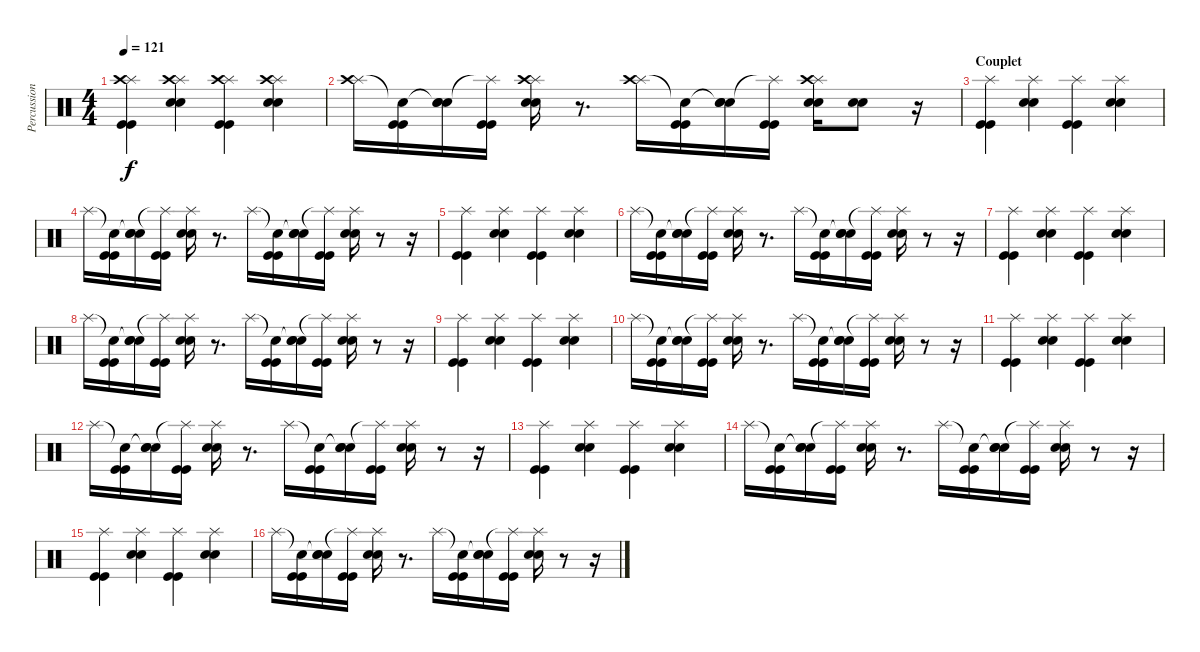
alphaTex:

\track ("Percussions" "Percussion") {instrument percussion}
\staff {score}
\articulation defaults
\ts (4 4)
\tempo 121
\clef neutral
\ks c
("Splash (hit)" "Crash high (hit)" "Kick (hit)" "Kick (hit)").4{dy f} ("Splash (hit)" "Crash high (hit)" "Electric Snare (hit)" "Electric Snare (hit)").4 ("Splash (hit)" "Crash high (hit)" "Kick (hit)" "Kick (hit)").4 ("Splash (hit)" "Crash high (hit)" "Electric Snare (hit)" "Electric Snare (hit)").4 |
("Splash (hit)" "Crash high (hit)").16 ("Snare (hit)"{t} "Kick (hit)" "Kick (hit)").16 ("Snare (hit)"{t} "Electric Snare (hit)" "Electric Snare (hit)").16 ("Splash (hit)"{t} "Kick (hit)" "Kick (hit)").16 ("Splash (hit)" "Crash high (hit)" "Electric Snare (hit)" "Electric Snare (hit)").16 r.8{d} ("Splash (hit)" "Crash high (hit)").16 ("Snare (hit)"{t} "Kick (hit)" "Kick (hit)").16 ("Snare (hit)"{t} "Electric Snare (hit)" "Electric Snare (hit)").16 ("Splash (hit)"{t} "Kick (hit)" "Kick (hit)").16 ("Splash (hit)" "Crash high (hit)" "Electric Snare (hit)" "Electric Snare (hit)").16 ("Electric Snare (hit)" "Electric Snare (hit)").8 r.16 |
\section ("" "Couplet")
("Splash (hit)" "Kick (hit)" "Kick (hit)").4 ("Splash (hit)" "Electric Snare (hit)" "Electric Snare (hit)").4 ("Splash (hit)" "Kick (hit)" "Kick (hit)").4 ("Splash (hit)" "Electric Snare (hit)" "Electric Snare (hit)").4 |
"Splash (hit)".16 ("Snare (hit)"{t} "Kick (hit)" "Kick (hit)").16 ("Snare (hit)"{t} "Electric Snare (hit)" "Electric Snare (hit)").16 ("Splash (hit)"{t} "Kick (hit)" "Kick (hit)").16 ("Splash (hit)" "Electric Snare (hit)" "Electric Snare (hit)").16 r.8{d} "Splash (hit)".16 ("Snare (hit)"{t} "Kick (hit)" "Kick (hit)").16 ("Snare (hit)"{t} "Electric Snare (hit)" "Electric Snare (hit)").16 ("Splash (hit)"{t} "Kick (hit)" "Kick (hit)").16 ("Splash (hit)" "Electric Snare (hit)" "Electric Snare (hit)").16 r.8 r.16 |
("Splash (hit)" "Kick (hit)" "Kick (hit)").4 ("Splash (hit)" "Electric Snare (hit)" "Electric Snare (hit)").4 ("Splash (hit)" "Kick (hit)" "Kick (hit)").4 ("Splash (hit)" "Electric Snare (hit)" "Electric Snare (hit)").4 |
"Splash (hit)".16 ("Snare (hit)"{t} "Kick (hit)" "Kick (hit)").16 ("Snare (hit)"{t} "Electric Snare (hit)" "Electric Snare (hit)").16 ("Splash (hit)"{t} "Kick (hit)" "Kick (hit)").16 ("Splash (hit)" "Electric Snare (hit)" "Electric Snare (hit)").16 r.8{d} "Splash (hit)".16 ("Snare (hit)"{t} "Kick (hit)" "Kick (hit)").16 ("Snare (hit)"{t} "Electric Snare (hit)" "Electric Snare (hit)").16 ("Splash (hit)"{t} "Kick (hit)" "Kick (hit)").16 ("Splash (hit)" "Electric Snare (hit)" "Electric Snare (hit)").16 r.8 r.16 |
("Splash (hit)" "Kick (hit)" "Kick (hit)").4 ("Splash (hit)" "Electric Snare (hit)" "Electric Snare (hit)").4 ("Splash (hit)" "Kick (hit)" "Kick (hit)").4 ("Splash (hit)" "Electric Snare (hit)" "Electric Snare (hit)").4 |
"Splash (hit)".16 ("Snare (hit)"{t} "Kick (hit)" "Kick (hit)").16 ("Snare (hit)"{t} "Electric Snare (hit)" "Electric Snare (hit)").16 ("Splash (hit)"{t} "Kick (hit)" "Kick (hit)").16 ("Splash (hit)" "Electric Snare (hit)" "Electric Snare (hit)").16 r.8{d} "Splash (hit)".16 ("Snare (hit)"{t} "Kick (hit)" "Kick (hit)").16 ("Snare (hit)"{t} "Electric Snare (hit)" "Electric Snare (hit)").16 ("Splash (hit)"{t} "Kick (hit)" "Kick (hit)").16 ("Splash (hit)" "Electric Snare (hit)" "Electric Snare (hit)").16 r.8 r.16 |
("Splash (hit)" "Kick (hit)" "Kick (hit)").4 ("Splash (hit)" "Electric Snare (hit)" "Electric Snare (hit)").4 ("Splash (hit)" "Kick (hit)" "Kick (hit)").4 ("Splash (hit)" "Electric Snare (hit)" "Electric Snare (hit)").4 |
"Splash (hit)".16 ("Snare (hit)"{t} "Kick (hit)" "Kick (hit)").16 ("Snare (hit)"{t} "Electric Snare (hit)" "Electric Snare (hit)").16 ("Splash (hit)"{t} "Kick (hit)" "Kick (hit)").16 ("Splash (hit)" "Electric Snare (hit)" "Electric Snare (hit)").16 r.8{d} "Splash (hit)".16 ("Snare (hit)"{t} "Kick (hit)" "Kick (hit)").16 ("Snare (hit)"{t} "Electric Snare (hit)" "Electric Snare (hit)").16 ("Splash (hit)"{t} "Kick (hit)" "Kick (hit)").16 ("Splash (hit)" "Electric Snare (hit)" "Electric Snare (hit)").16 r.8 r.16 |
("Splash (hit)" "Kick (hit)" "Kick (hit)").4 ("Splash (hit)" "Electric Snare (hit)" "Electric Snare (hit)").4 ("Splash (hit)" "Kick (hit)" "Kick (hit)").4 ("Splash (hit)" "Electric Snare (hit)" "Electric Snare (hit)").4 |
"Splash (hit)".16 ("Snare (hit)"{t} "Kick (hit)" "Kick (hit)").16 ("Snare (hit)"{t} "Electric Snare (hit)" "Electric Snare (hit)").16 ("Splash (hit)"{t} "Kick (hit)" "Kick (hit)").16 ("Splash (hit)" "Electric Snare (hit)" "Electric Snare (hit)").16 r.8{d} "Splash (hit)".16 ("Snare (hit)"{t} "Kick (hit)" "Kick (hit)").16 ("Snare (hit)"{t} "Electric Snare (hit)" "Electric Snare (hit)").16 ("Splash (hit)"{t} "Kick (hit)" "Kick (hit)").16 ("Splash (hit)" "Electric Snare (hit)" "Electric Snare (hit)").16 r.8 r.16 |
("Splash (hit)" "Kick (hit)" "Kick (hit)").4 ("Splash (hit)" "Electric Snare (hit)" "Electric Snare (hit)").4 ("Splash (hit)" "Kick (hit)" "Kick (hit)").4 ("Splash (hit)" "Electric Snare (hit)" "Electric Snare (hit)").4 |
"Splash (hit)".16 ("Snare (hit)"{t} "Kick (hit)" "Kick (hit)").16 ("Snare (hit)"{t} "Electric Snare (hit)" "Electric Snare (hit)").16 ("Splash (hit)"{t} "Kick (hit)" "Kick (hit)").16 ("Splash (hit)" "Electric Snare (hit)" "Electric Snare (hit)").16 r.8{d} "Splash (hit)".16 ("Snare (hit)"{t} "Kick (hit)" "Kick (hit)").16 ("Snare (hit)"{t} "Electric Snare (hit)" "Electric Snare (hit)").16 ("Splash (hit)"{t} "Kick (hit)" "Kick (hit)").16 ("Splash (hit)" "Electric Snare (hit)" "Electric Snare (hit)").16 r.8 r.16 |
("Splash (hit)" "Kick (hit)" "Kick (hit)").4 ("Splash (hit)" "Electric Snare (hit)" "Electric Snare (hit)").4 ("Splash (hit)" "Kick (hit)" "Kick (hit)").4 ("Splash (hit)" "Electric Snare (hit)" "Electric Snare (hit)").4 |
"Splash (hit)".16 ("Snare (hit)"{t} "Kick (hit)" "Kick (hit)").16 ("Snare (hit)"{t} "Electric Snare (hit)" "Electric Snare (hit)").16 ("Splash (hit)"{t} "Kick (hit)" "Kick (hit)").16 ("Splash (hit)" "Electric Snare (hit)" "Electric Snare (hit)").16 r.8{d} "Splash (hit)".16 ("Snare (hit)"{t} "Kick (hit)" "Kick (hit)").16 ("Snare (hit)"{t} "Electric Snare (hit)" "Electric Snare (hit)").16 ("Splash (hit)"{t} "Kick (hit)" "Kick (hit)").16 ("Splash (hit)" "Electric Snare (hit)" "Electric Snare (hit)").16 r.8 r.16
